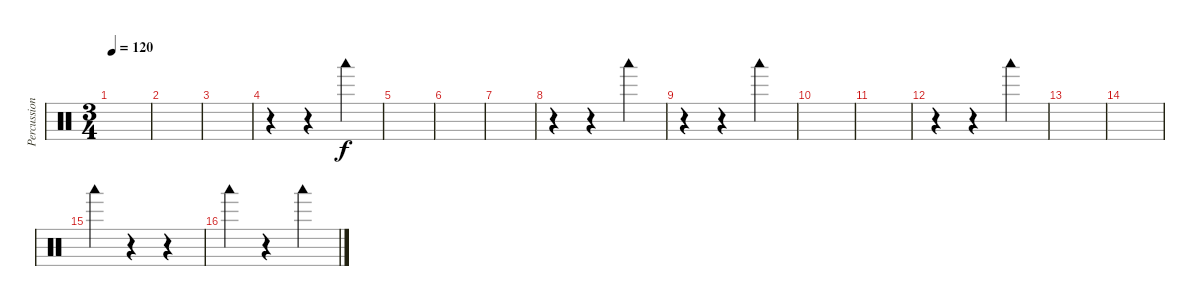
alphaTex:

\track ("Percussion" "Percussion") {instrument percussion}
\staff {score}
\articulation defaults
\ts (3 4)
\tempo 120
\clef neutral
\ks c
|
|
|
r.4 r.4 "Woodblock low (hit)".4 |
|
|
|
r.4 r.4 "Woodblock low (hit)".4 |
r.4 r.4 "Woodblock low (hit)".4 |
|
|
r.4 r.4 "Woodblock low (hit)".4 |
|
|
"Woodblock low (hit)".4 r.4 r.4 |
"Woodblock low (hit)".4 r.4 "Woodblock low (hit)".4
